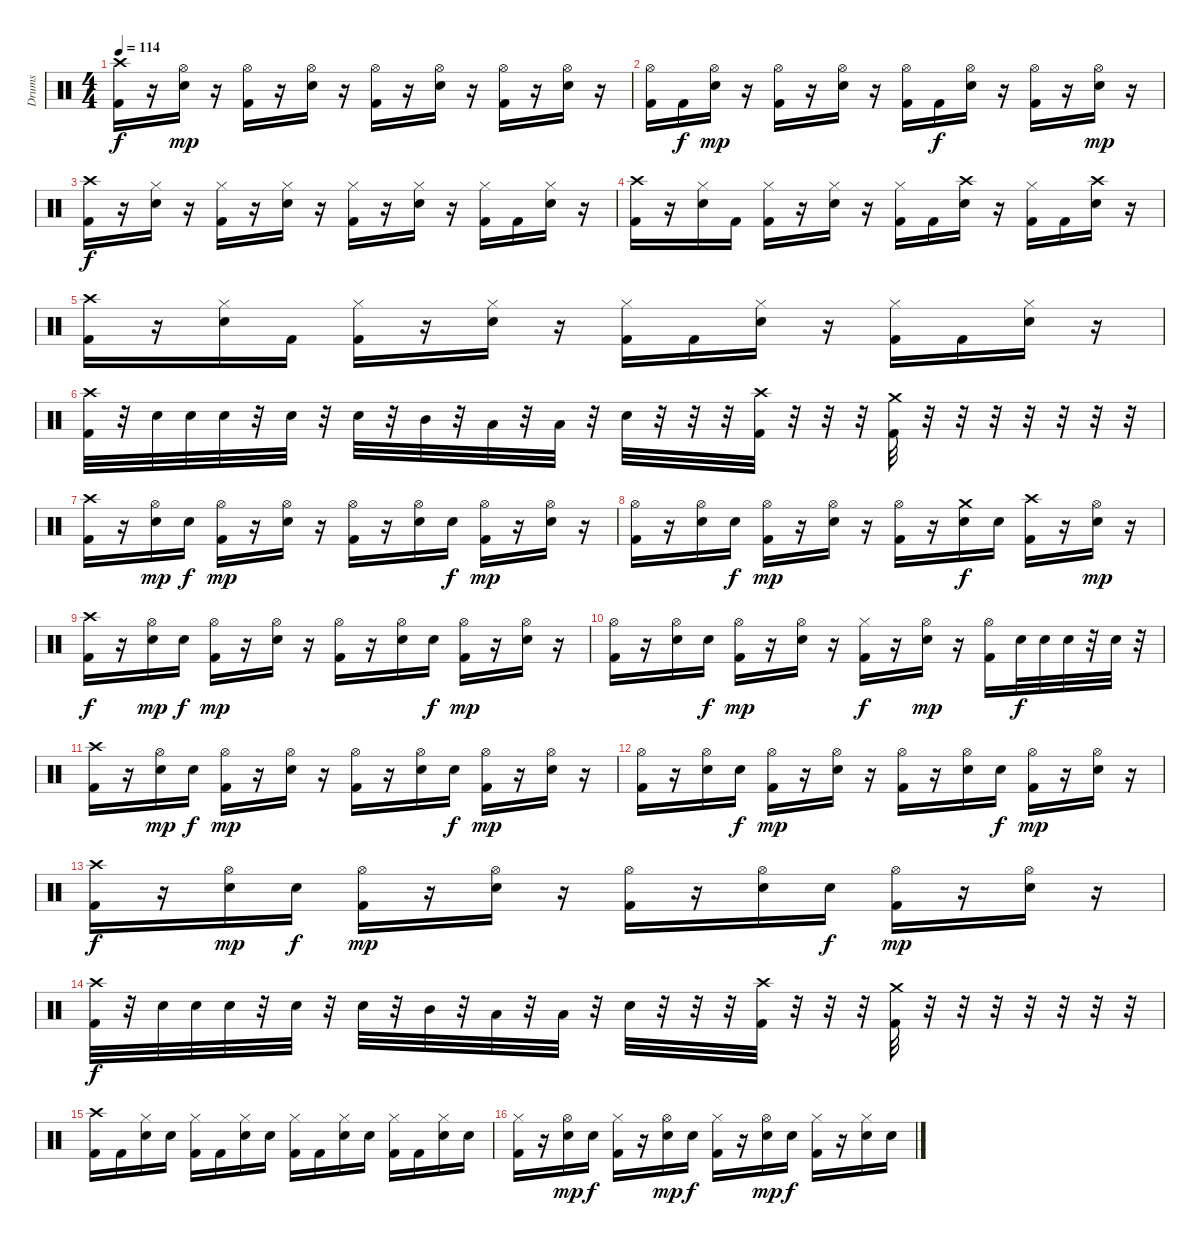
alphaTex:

\track ("Drums" "Drums") {instrument percussion}
\staff {score}
\articulation defaults
\ts (4 4)
\tempo 114
\clef neutral
\ks c
("Crash high (hit)" "Kick (hit) 2").16{dy f} r.16 ("Hi-Hat (open)" "Electric Snare (hit)").16{dy mp} r.16 ("Hi-Hat (open)" "Kick (hit) 2").16 r.16 ("Hi-Hat (open)" "Electric Snare (hit)").16 r.16 ("Hi-Hat (open)" "Kick (hit) 2").16 r.16 ("Hi-Hat (open)" "Electric Snare (hit)").16 r.16 ("Hi-Hat (open)" "Kick (hit) 2").16 r.16 ("Hi-Hat (open)" "Electric Snare (hit)").16 r.16 |
("Hi-Hat (open)" "Kick (hit) 2").16 "Kick (hit) 2".16{dy f} ("Hi-Hat (open)" "Electric Snare (hit)").16{dy mp} r.16 ("Hi-Hat (open)" "Kick (hit) 2").16 r.16 ("Hi-Hat (open)" "Electric Snare (hit)").16 r.16 ("Hi-Hat (open)" "Kick (hit) 2").16 "Kick (hit) 2".16{dy f} ("Hi-Hat (open)" "Electric Snare (hit)").16 r.16 ("Hi-Hat (open)" "Kick (hit) 2").16 r.16 ("Hi-Hat (open)" "Electric Snare (hit)").16{dy mp} r.16 |
("Crash high (hit)" "Kick (hit) 2").16{dy f} r.16 ("Hi-Hat (closed)" "Electric Snare (hit)").16 r.16 ("Hi-Hat (closed)" "Kick (hit) 2").16 r.16 ("Hi-Hat (closed)" "Electric Snare (hit)").16 r.16 ("Hi-Hat (closed)" "Kick (hit) 2").16 r.16 ("Hi-Hat (closed)" "Electric Snare (hit)").16 r.16 ("Hi-Hat (closed)" "Kick (hit) 2").16 "Kick (hit) 2".16 ("Hi-Hat (closed)" "Electric Snare (hit)").16 r.16 |
("Crash high (hit)" "Kick (hit) 2").16 r.16 ("Hi-Hat (closed)" "Electric Snare (hit)").16 "Kick (hit) 2".16 ("Hi-Hat (closed)" "Kick (hit) 2").16 r.16 ("Hi-Hat (closed)" "Electric Snare (hit)").16 r.16 ("Hi-Hat (closed)" "Kick (hit) 2").16 "Kick (hit) 2".16 ("Crash high (hit)" "Electric Snare (hit)").16 r.16 ("Hi-Hat (closed)" "Kick (hit) 2").16 "Kick (hit) 2".16 ("Crash high (hit)" "Electric Snare (hit)").16 r.16 |
("Crash high (hit)" "Kick (hit) 2").16 r.16 ("Hi-Hat (closed)" "Electric Snare (hit)").16 "Kick (hit) 2".16 ("Hi-Hat (closed)" "Kick (hit) 2").16 r.16 ("Hi-Hat (closed)" "Electric Snare (hit)").16 r.16 ("Hi-Hat (closed)" "Kick (hit) 2").16 "Kick (hit) 2".16 ("Hi-Hat (closed)" "Electric Snare (hit)").16 r.16 ("Hi-Hat (closed)" "Kick (hit) 2").16 "Kick (hit) 2".16 ("Hi-Hat (closed)" "Electric Snare (hit)").16 r.16 |
("Crash high (hit)" "Kick (hit) 2").32 r.32 "Electric Snare (hit)".32 "Electric Snare (hit)".32 "Electric Snare (hit)".32 r.32 "Electric Snare (hit)".32 r.32 "Electric Snare (hit)".32 r.32 "Mid Tom (hit)".32 r.32 "Low Tom (hit)".32 r.32 "Low Floor Tom (hit)".32 r.32 "Electric Snare (hit)".32 r.32 r.32 r.32 ("Crash high (hit)" "Kick (hit) 2").32 r.32 r.32 r.32 ("Crash medium (hit)" "Kick (hit) 2").32 r.32 r.32 r.32 r.32 r.32 r.32 r.32 |
("Crash high (hit)" "Kick (hit) 2").16 r.16 ("Hi-Hat (open)" "Electric Snare (hit)").16{dy mp} "Electric Snare (hit)".16{dy f} ("Hi-Hat (open)" "Kick (hit) 2").16{dy mp} r.16 ("Hi-Hat (open)" "Electric Snare (hit)").16 r.16 ("Hi-Hat (open)" "Kick (hit) 2").16 r.16 ("Hi-Hat (open)" "Electric Snare (hit)").16 "Electric Snare (hit)".16{dy f} ("Hi-Hat (open)" "Kick (hit) 2").16{dy mp} r.16 ("Hi-Hat (open)" "Electric Snare (hit)").16 r.16 |
("Hi-Hat (open)" "Kick (hit) 2").16 r.16 ("Hi-Hat (open)" "Electric Snare (hit)").16 "Electric Snare (hit)".16{dy f} ("Hi-Hat (open)" "Kick (hit) 2").16{dy mp} r.16 ("Hi-Hat (open)" "Electric Snare (hit)").16 r.16 ("Hi-Hat (open)" "Kick (hit) 2").16 r.16 ("Crash medium (hit)" "Electric Snare (hit)").16{dy f} "Electric Snare (hit)".16 ("Crash high (hit)" "Kick (hit) 2").16 r.16 ("Hi-Hat (open)" "Electric Snare (hit)").16{dy mp} r.16 |
("Crash high (hit)" "Kick (hit) 2").16{dy f} r.16 ("Hi-Hat (open)" "Electric Snare (hit)").16{dy mp} "Electric Snare (hit)".16{dy f} ("Hi-Hat (open)" "Kick (hit) 2").16{dy mp} r.16 ("Hi-Hat (open)" "Electric Snare (hit)").16 r.16 ("Hi-Hat (open)" "Kick (hit) 2").16 r.16 ("Hi-Hat (open)" "Electric Snare (hit)").16 "Electric Snare (hit)".16{dy f} ("Hi-Hat (open)" "Kick (hit) 2").16{dy mp} r.16 ("Hi-Hat (open)" "Electric Snare (hit)").16 r.16 |
("Hi-Hat (open)" "Kick (hit) 2").16 r.16 ("Hi-Hat (open)" "Electric Snare (hit)").16 "Electric Snare (hit)".16{dy f} ("Hi-Hat (open)" "Kick (hit) 2").16{dy mp} r.16 ("Hi-Hat (open)" "Electric Snare (hit)").16 r.16 ("Hi-Hat (closed)" "Kick (hit) 2").16{dy f} r.16 ("Hi-Hat (open)" "Electric Snare (hit)").16{dy mp} r.16 ("Hi-Hat (open)" "Kick (hit) 2").16 "Electric Snare (hit)".32{dy f} "Electric Snare (hit)".32 "Electric Snare (hit)".32 r.32 "Electric Snare (hit)".32 r.32 |
("Crash high (hit)" "Kick (hit) 2").16 r.16 ("Hi-Hat (open)" "Electric Snare (hit)").16{dy mp} "Electric Snare (hit)".16{dy f} ("Hi-Hat (open)" "Kick (hit) 2").16{dy mp} r.16 ("Hi-Hat (open)" "Electric Snare (hit)").16 r.16 ("Hi-Hat (open)" "Kick (hit) 2").16 r.16 ("Hi-Hat (open)" "Electric Snare (hit)").16 "Electric Snare (hit)".16{dy f} ("Hi-Hat (open)" "Kick (hit) 2").16{dy mp} r.16 ("Hi-Hat (open)" "Electric Snare (hit)").16 r.16 |
("Hi-Hat (open)" "Kick (hit) 2").16 r.16 ("Hi-Hat (open)" "Electric Snare (hit)").16 "Electric Snare (hit)".16{dy f} ("Hi-Hat (open)" "Kick (hit) 2").16{dy mp} r.16 ("Hi-Hat (open)" "Electric Snare (hit)").16 r.16 ("Hi-Hat (open)" "Kick (hit) 2").16 r.16 ("Hi-Hat (open)" "Electric Snare (hit)").16 "Electric Snare (hit)".16{dy f} ("Hi-Hat (open)" "Kick (hit) 2").16{dy mp} r.16 ("Hi-Hat (open)" "Electric Snare (hit)").16 r.16 |
("Crash high (hit)" "Kick (hit) 2").16{dy f} r.16 ("Hi-Hat (open)" "Electric Snare (hit)").16{dy mp} "Electric Snare (hit)".16{dy f} ("Hi-Hat (open)" "Kick (hit) 2").16{dy mp} r.16 ("Hi-Hat (open)" "Electric Snare (hit)").16 r.16 ("Hi-Hat (open)" "Kick (hit) 2").16 r.16 ("Hi-Hat (open)" "Electric Snare (hit)").16 "Electric Snare (hit)".16{dy f} ("Hi-Hat (open)" "Kick (hit) 2").16{dy mp} r.16 ("Hi-Hat (open)" "Electric Snare (hit)").16 r.16 |
("Crash high (hit)" "Kick (hit) 2").32{dy f} r.32 "Electric Snare (hit)".32 "Electric Snare (hit)".32 "Electric Snare (hit)".32 r.32 "Electric Snare (hit)".32 r.32 "Electric Snare (hit)".32 r.32 "Mid Tom (hit)".32 r.32 "Low Tom (hit)".32 r.32 "Low Floor Tom (hit)".32 r.32 "Electric Snare (hit)".32 r.32 r.32 r.32 ("Crash high (hit)" "Kick (hit) 2").32 r.32 r.32 r.32 ("Crash medium (hit)" "Kick (hit) 2").32 r.32 r.32 r.32 r.32 r.32 r.32 r.32 |
("Crash high (hit)" "Kick (hit) 2").16 "Kick (hit) 2".16 ("Hi-Hat (closed)" "Electric Snare (hit)").16 "Electric Snare (hit)".16 ("Hi-Hat (closed)" "Kick (hit) 2").16 "Kick (hit) 2".16 ("Hi-Hat (closed)" "Electric Snare (hit)").16 "Electric Snare (hit)".16 ("Hi-Hat (closed)" "Kick (hit) 2").16 "Kick (hit) 2".16 ("Hi-Hat (closed)" "Electric Snare (hit)").16 "Electric Snare (hit)".16 ("Hi-Hat (closed)" "Kick (hit) 2").16 "Kick (hit) 2".16 ("Hi-Hat (closed)" "Electric Snare (hit)").16 "Electric Snare (hit)".16 |
("Hi-Hat (closed)" "Kick (hit) 2").16 r.16 ("Hi-Hat (open)" "Electric Snare (hit)").16{dy mp} "Electric Snare (hit)".16{dy f} ("Hi-Hat (closed)" "Kick (hit) 2").16 r.16 ("Hi-Hat (open)" "Electric Snare (hit)").16{dy mp} "Electric Snare (hit)".16{dy f} ("Hi-Hat (closed)" "Kick (hit) 2").16 r.16 ("Hi-Hat (open)" "Electric Snare (hit)").16{dy mp} "Electric Snare (hit)".16{dy f} ("Hi-Hat (closed)" "Kick (hit) 2").16 r.16 ("Hi-Hat (closed)" "Electric Snare (hit)").16 "Electric Snare (hit)".16
